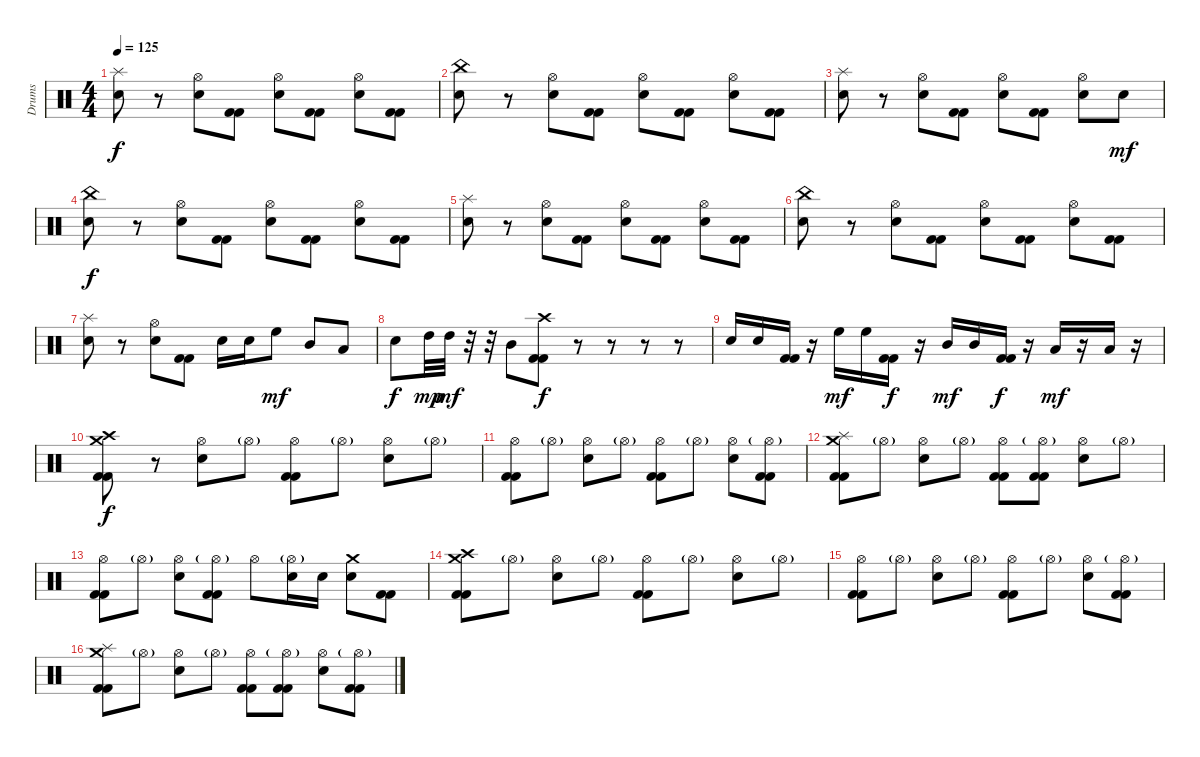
\track ("Drums" "Drums") {instrument percussion}
\staff {score}
\articulation defaults
\ts (4 4)
\tempo 125
\clef neutral
\ks c
("Splash (hit)" "Snare (hit) 2").8{dy f} r.8 ("Hi-Hat (open)" "Snare (hit) 2").8 ("Kick (hit) 2" "Kick (hit) 2").8 ("Hi-Hat (open)" "Snare (hit) 2").8 ("Kick (hit) 2" "Kick (hit) 2").8 ("Hi-Hat (open)" "Snare (hit) 2").8 ("Kick (hit) 2" "Kick (hit) 2").8 |
("China (hit)" "Snare (hit) 2").8 r.8 ("Hi-Hat (open)" "Snare (hit) 2").8 ("Kick (hit) 2" "Kick (hit) 2").8 ("Hi-Hat (open)" "Snare (hit) 2").8 ("Kick (hit) 2" "Kick (hit) 2").8 ("Hi-Hat (open)" "Snare (hit) 2").8 ("Kick (hit) 2" "Kick (hit) 2").8 |
("Splash (hit)" "Snare (hit) 2").8 r.8 ("Hi-Hat (open)" "Snare (hit) 2").8 ("Kick (hit) 2" "Kick (hit) 2").8 ("Hi-Hat (open)" "Snare (hit) 2").8 ("Kick (hit) 2" "Kick (hit) 2").8 ("Hi-Hat (open)" "Snare (hit) 2").8 "Snare (hit) 2".8{dy mf} |
("China (hit)" "Snare (hit) 2").8{dy f} r.8 ("Hi-Hat (open)" "Snare (hit) 2").8 ("Kick (hit) 2" "Kick (hit) 2").8 ("Hi-Hat (open)" "Snare (hit) 2").8 ("Kick (hit) 2" "Kick (hit) 2").8 ("Hi-Hat (open)" "Snare (hit) 2").8 ("Kick (hit) 2" "Kick (hit) 2").8 |
("Splash (hit)" "Snare (hit) 2").8 r.8 ("Hi-Hat (open)" "Snare (hit) 2").8 ("Kick (hit) 2" "Kick (hit) 2").8 ("Hi-Hat (open)" "Snare (hit) 2").8 ("Kick (hit) 2" "Kick (hit) 2").8 ("Hi-Hat (open)" "Snare (hit) 2").8 ("Kick (hit) 2" "Kick (hit) 2").8 |
("China (hit)" "Snare (hit) 2").8 r.8 ("Hi-Hat (open)" "Snare (hit) 2").8 ("Kick (hit) 2" "Kick (hit) 2").8 ("Hi-Hat (open)" "Snare (hit) 2").8 ("Kick (hit) 2" "Kick (hit) 2").8 ("Hi-Hat (open)" "Snare (hit) 2").8 ("Kick (hit) 2" "Kick (hit) 2").8 |
("Splash (hit)" "Snare (hit) 2").8 r.8 ("Hi-Hat (open)" "Snare (hit) 2").8 ("Kick (hit) 2" "Kick (hit) 2").8 "Snare (hit) 2".16 "Snare (hit) 2".16 "High Floor Tom (hit)".8{dy mf} "Mid Tom (hit)".8 "Low Tom (hit)".8 |
"Snare (hit) 2".8{dy f} "High Tom (hit)".32{dy mp} "High Tom (hit)".32{dy mf} r.32 r.32 "Mid Tom (hit)".8 ("Crash high (hit)" "Kick (hit) 2" "Kick (hit) 2").8{dy f} r.8 r.8 r.8 r.8 |
"Snare (hit) 2".16 "Snare (hit) 2".16 ("Kick (hit) 2" "Kick (hit) 2").16 r.16 "High Floor Tom (hit)".16{dy mf} "High Floor Tom (hit)".16 ("Kick (hit) 2" "Kick (hit) 2").16{dy f} r.16 "Mid Tom (hit)".16{dy mf} "Mid Tom (hit)".16 ("Kick (hit) 2" "Kick (hit) 2").16{dy f} r.16 "Low Tom (hit)".16{dy mf} r.16 "Low Tom (hit)".16 r.16 |
("Crash high (hit)" "Crash medium (hit)" "Kick (hit) 2" "Kick (hit) 2").8{dy f} r.8 ("Hi-Hat (open)" "Electric Snare (hit)").8 "Hi-Hat (open)"{g}.8 ("Hi-Hat (open)" "Kick (hit) 2" "Kick (hit) 2").8 "Hi-Hat (open)"{g}.8 ("Hi-Hat (open)" "Electric Snare (hit)").8 "Hi-Hat (open)"{g}.8 |
("Hi-Hat (open)" "Kick (hit) 2" "Kick (hit) 2").8 "Hi-Hat (open)"{g}.8 ("Hi-Hat (open)" "Electric Snare (hit)").8 "Hi-Hat (open)"{g}.8 ("Hi-Hat (open)" "Kick (hit) 2" "Kick (hit) 2").8 "Hi-Hat (open)"{g}.8 ("Hi-Hat (open)" "Electric Snare (hit)").8 ("Hi-Hat (open)"{g} "Kick (hit) 2" "Kick (hit) 2").8 |
("Crash medium (hit)" "Splash (hit)" "Kick (hit) 2" "Kick (hit) 2").8 "Hi-Hat (open)"{g}.8 ("Hi-Hat (open)" "Electric Snare (hit)").8 "Hi-Hat (open)"{g}.8 ("Hi-Hat (open)" "Kick (hit) 2" "Kick (hit) 2").8 ("Hi-Hat (open)"{g} "Kick (hit) 2" "Kick (hit) 2").8 ("Hi-Hat (open)" "Electric Snare (hit)").8 "Hi-Hat (open)"{g}.8 |
("Hi-Hat (open)" "Kick (hit) 2" "Kick (hit) 2").8 "Hi-Hat (open)"{g}.8 ("Hi-Hat (open)" "Electric Snare (hit)").8 ("Hi-Hat (open)"{g} "Kick (hit) 2" "Kick (hit) 2").8 "Hi-Hat (open)".8 ("Hi-Hat (open)"{g} "Electric Snare (hit)").16 "Electric Snare (hit)".16 ("Crash medium (hit)" "Electric Snare (hit)").8 ("Kick (hit) 2" "Kick (hit) 2").8 |
("Crash high (hit)" "Crash medium (hit)" "Kick (hit) 2" "Kick (hit) 2").8 "Hi-Hat (open)"{g}.8 ("Hi-Hat (open)" "Electric Snare (hit)").8 "Hi-Hat (open)"{g}.8 ("Hi-Hat (open)" "Kick (hit) 2" "Kick (hit) 2").8 "Hi-Hat (open)"{g}.8 ("Hi-Hat (open)" "Electric Snare (hit)").8 "Hi-Hat (open)"{g}.8 |
("Hi-Hat (open)" "Kick (hit) 2" "Kick (hit) 2").8 "Hi-Hat (open)"{g}.8 ("Hi-Hat (open)" "Electric Snare (hit)").8 "Hi-Hat (open)"{g}.8 ("Hi-Hat (open)" "Kick (hit) 2" "Kick (hit) 2").8 "Hi-Hat (open)"{g}.8 ("Hi-Hat (open)" "Electric Snare (hit)").8 ("Hi-Hat (open)"{g} "Kick (hit) 2" "Kick (hit) 2").8 |
("Crash medium (hit)" "Splash (hit)" "Kick (hit) 2" "Kick (hit) 2").8 "Hi-Hat (open)"{g}.8 ("Hi-Hat (open)" "Electric Snare (hit)").8 "Hi-Hat (open)"{g}.8 ("Hi-Hat (open)" "Kick (hit) 2" "Kick (hit) 2").8 ("Hi-Hat (open)"{g} "Kick (hit) 2" "Kick (hit) 2").8 ("Hi-Hat (open)" "Electric Snare (hit)").8 ("Hi-Hat (open)"{g} "Kick (hit) 2" "Kick (hit) 2").8
